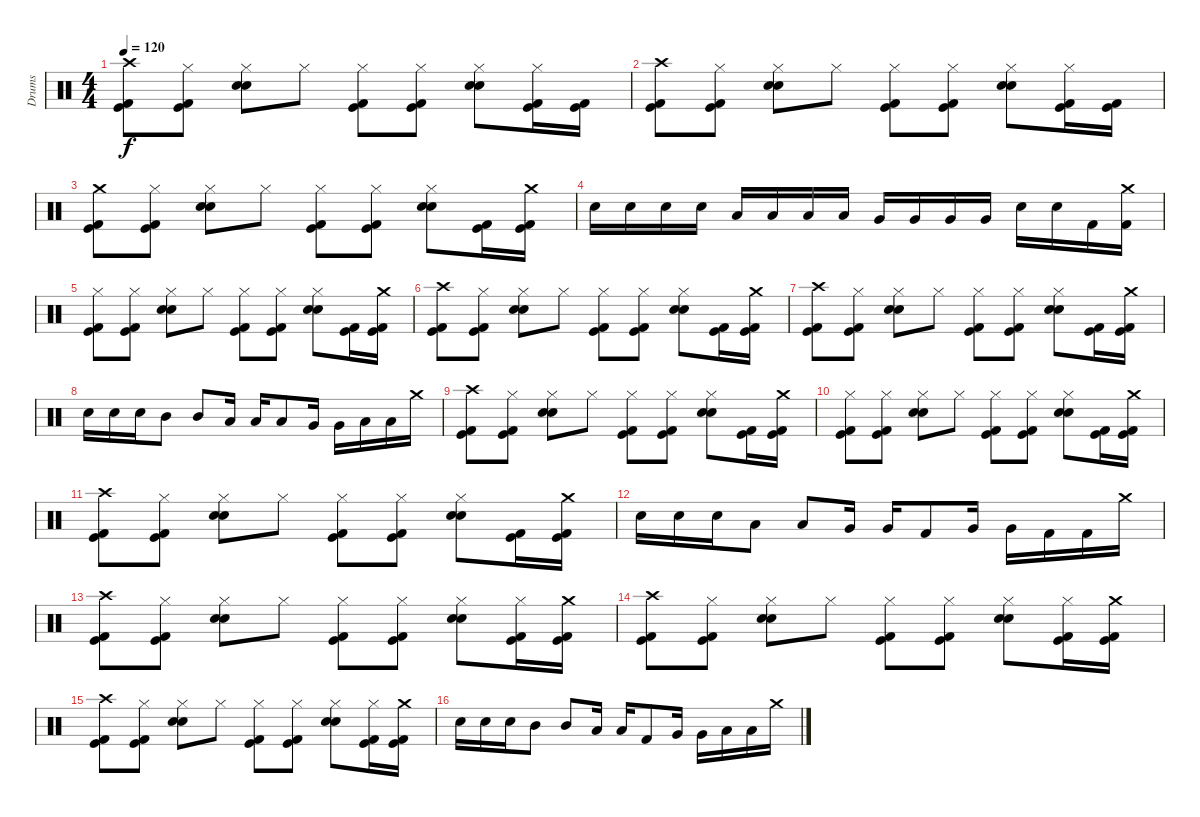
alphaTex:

\track ("Drums" "Drums") {instrument percussion}
\staff {score}
\articulation defaults
\ts (4 4)
\tempo 120
\clef neutral
\ks c
("Crash high (hit)" "Kick (hit) 2" "Kick (hit)").8{dy f} ("Hi-Hat (closed)" "Kick (hit) 2" "Kick (hit)").8 ("Snare (hit) 2" "Hi-Hat (closed)" "Electric Snare (hit)").8 "Hi-Hat (closed)".8 ("Hi-Hat (closed)" "Kick (hit) 2" "Kick (hit)").8 ("Hi-Hat (closed)" "Kick (hit) 2" "Kick (hit)").8 ("Snare (hit) 2" "Hi-Hat (closed)" "Electric Snare (hit)").8 ("Hi-Hat (closed)" "Kick (hit) 2" "Kick (hit)").16 ("Kick (hit) 2" "Kick (hit)").16 |
("Crash high (hit)" "Kick (hit) 2" "Kick (hit)").8 ("Hi-Hat (closed)" "Kick (hit) 2" "Kick (hit)").8 ("Snare (hit) 2" "Hi-Hat (closed)" "Electric Snare (hit)").8 "Hi-Hat (closed)".8 ("Hi-Hat (closed)" "Kick (hit) 2" "Kick (hit)").8 ("Hi-Hat (closed)" "Kick (hit) 2" "Kick (hit)").8 ("Snare (hit) 2" "Hi-Hat (closed)" "Electric Snare (hit)").8 ("Hi-Hat (closed)" "Kick (hit) 2" "Kick (hit)").16 ("Kick (hit) 2" "Kick (hit)").16 |
("Crash medium (hit)" "Kick (hit) 2" "Kick (hit)").8 ("Hi-Hat (closed)" "Kick (hit) 2" "Kick (hit)").8 ("Snare (hit) 2" "Hi-Hat (closed)" "Electric Snare (hit)").8 "Hi-Hat (closed)".8 ("Hi-Hat (closed)" "Kick (hit) 2" "Kick (hit)").8 ("Hi-Hat (closed)" "Kick (hit) 2" "Kick (hit)").8 ("Snare (hit) 2" "Hi-Hat (closed)" "Electric Snare (hit)").8 ("Kick (hit) 2" "Kick (hit)").16 ("Crash medium (hit)" "Kick (hit) 2" "Kick (hit)").16 |
"Electric Snare (hit)".16 "Electric Snare (hit)".16 "Electric Snare (hit)".16 "Electric Snare (hit)".16 "Low Tom (hit)".16 "Low Tom (hit)".16 "Low Tom (hit)".16 "Low Tom (hit)".16 "Very Low Tom (hit)".16 "Very Low Tom (hit)".16 "Very Low Tom (hit)".16 "Very Low Tom (hit)".16 "Electric Snare (hit)".16 "Electric Snare (hit)".16 "Kick (hit) 2".16 ("Crash medium (hit)" "Kick (hit) 2").16 |
("Hi-Hat (closed)" "Kick (hit) 2" "Kick (hit)").8 ("Hi-Hat (closed)" "Kick (hit) 2" "Kick (hit)").8 ("Snare (hit) 2" "Hi-Hat (closed)" "Electric Snare (hit)").8 "Hi-Hat (closed)".8 ("Hi-Hat (closed)" "Kick (hit) 2" "Kick (hit)").8 ("Hi-Hat (closed)" "Kick (hit) 2" "Kick (hit)").8 ("Snare (hit) 2" "Hi-Hat (closed)" "Electric Snare (hit)").8 ("Kick (hit) 2" "Kick (hit)").16 ("Crash medium (hit)" "Kick (hit) 2" "Kick (hit)").16 |
("Crash high (hit)" "Kick (hit) 2" "Kick (hit)").8 ("Hi-Hat (closed)" "Kick (hit) 2" "Kick (hit)").8 ("Snare (hit) 2" "Hi-Hat (closed)" "Electric Snare (hit)").8 "Hi-Hat (closed)".8 ("Hi-Hat (closed)" "Kick (hit) 2" "Kick (hit)").8 ("Hi-Hat (closed)" "Kick (hit) 2" "Kick (hit)").8 ("Snare (hit) 2" "Hi-Hat (closed)" "Electric Snare (hit)").8 ("Kick (hit) 2" "Kick (hit)").16 ("Crash medium (hit)" "Kick (hit) 2" "Kick (hit)").16 |
("Crash high (hit)" "Kick (hit) 2" "Kick (hit)").8 ("Hi-Hat (closed)" "Kick (hit) 2" "Kick (hit)").8 ("Snare (hit) 2" "Hi-Hat (closed)" "Electric Snare (hit)").8 "Hi-Hat (closed)".8 ("Hi-Hat (closed)" "Kick (hit) 2" "Kick (hit)").8 ("Hi-Hat (closed)" "Kick (hit) 2" "Kick (hit)").8 ("Snare (hit) 2" "Hi-Hat (closed)" "Electric Snare (hit)").8 ("Kick (hit) 2" "Kick (hit)").16 ("Crash medium (hit)" "Kick (hit) 2" "Kick (hit)").16 |
"Electric Snare (hit)".16 "Electric Snare (hit)".16 "Electric Snare (hit)".16 "Mid Tom (hit)".8 "Mid Tom (hit)".8 "Low Tom (hit)".16 "Low Tom (hit)".16 "Low Tom (hit)".8 "Very Low Tom (hit)".16 "Very Low Tom (hit)".16 "Low Floor Tom (hit)".16 "Low Floor Tom (hit)".16 "Crash medium (hit)".16 |
("Crash high (hit)" "Kick (hit) 2" "Kick (hit)").8 ("Hi-Hat (closed)" "Kick (hit) 2" "Kick (hit)").8 ("Snare (hit) 2" "Hi-Hat (closed)" "Electric Snare (hit)").8 "Hi-Hat (closed)".8 ("Hi-Hat (closed)" "Kick (hit) 2" "Kick (hit)").8 ("Hi-Hat (closed)" "Kick (hit) 2" "Kick (hit)").8 ("Snare (hit) 2" "Hi-Hat (closed)" "Electric Snare (hit)").8 ("Kick (hit) 2" "Kick (hit)").16 ("Crash medium (hit)" "Kick (hit) 2" "Kick (hit)").16 |
("Hi-Hat (closed)" "Kick (hit) 2" "Kick (hit)").8 ("Hi-Hat (closed)" "Kick (hit) 2" "Kick (hit)").8 ("Snare (hit) 2" "Hi-Hat (closed)" "Electric Snare (hit)").8 "Hi-Hat (closed)".8 ("Hi-Hat (closed)" "Kick (hit) 2" "Kick (hit)").8 ("Hi-Hat (closed)" "Kick (hit) 2" "Kick (hit)").8 ("Snare (hit) 2" "Hi-Hat (closed)" "Electric Snare (hit)").8 ("Kick (hit) 2" "Kick (hit)").16 ("Crash medium (hit)" "Kick (hit) 2" "Kick (hit)").16 |
("Crash high (hit)" "Kick (hit) 2" "Kick (hit)").8 ("Hi-Hat (closed)" "Kick (hit) 2" "Kick (hit)").8 ("Snare (hit) 2" "Hi-Hat (closed)" "Electric Snare (hit)").8 "Hi-Hat (closed)".8 ("Hi-Hat (closed)" "Kick (hit) 2" "Kick (hit)").8 ("Hi-Hat (closed)" "Kick (hit) 2" "Kick (hit)").8 ("Snare (hit) 2" "Hi-Hat (closed)" "Electric Snare (hit)").8 ("Kick (hit) 2" "Kick (hit)").16 ("Crash medium (hit)" "Kick (hit) 2" "Kick (hit)").16 |
"Snare (hit) 2".16 "Snare (hit) 2".16 "Snare (hit) 2".16 "Low Tom (hit)".8 "Low Tom (hit)".8 "Very Low Tom (hit)".16 "Very Low Tom (hit)".16 "Kick (hit) 2".8 "Very Low Tom (hit)".16 "Very Low Tom (hit)".16 "Kick (hit) 2".16 "Kick (hit) 2".16 "Crash medium (hit)".16 |
("Crash high (hit)" "Kick (hit) 2" "Kick (hit)").8 ("Hi-Hat (closed)" "Kick (hit) 2" "Kick (hit)").8 ("Snare (hit) 2" "Hi-Hat (closed)" "Electric Snare (hit)").8 "Hi-Hat (closed)".8 ("Hi-Hat (closed)" "Kick (hit) 2" "Kick (hit)").8 ("Hi-Hat (closed)" "Kick (hit) 2" "Kick (hit)").8 ("Snare (hit) 2" "Hi-Hat (closed)" "Electric Snare (hit)").8 ("Hi-Hat (closed)" "Kick (hit) 2" "Kick (hit)").16 ("Crash medium (hit)" "Kick (hit) 2" "Kick (hit)").16 |
("Crash high (hit)" "Kick (hit) 2" "Kick (hit)").8 ("Hi-Hat (closed)" "Kick (hit) 2" "Kick (hit)").8 ("Snare (hit) 2" "Hi-Hat (closed)" "Electric Snare (hit)").8 "Hi-Hat (closed)".8 ("Hi-Hat (closed)" "Kick (hit) 2" "Kick (hit)").8 ("Hi-Hat (closed)" "Kick (hit) 2" "Kick (hit)").8 ("Snare (hit) 2" "Hi-Hat (closed)" "Electric Snare (hit)").8 ("Hi-Hat (closed)" "Kick (hit) 2" "Kick (hit)").16 ("Crash medium (hit)" "Kick (hit) 2" "Kick (hit)").16 |
("Crash high (hit)" "Kick (hit) 2" "Kick (hit)").8 ("Hi-Hat (closed)" "Kick (hit) 2" "Kick (hit)").8 ("Snare (hit) 2" "Hi-Hat (closed)" "Electric Snare (hit)").8 "Hi-Hat (closed)".8 ("Hi-Hat (closed)" "Kick (hit) 2" "Kick (hit)").8 ("Hi-Hat (closed)" "Kick (hit) 2" "Kick (hit)").8 ("Snare (hit) 2" "Hi-Hat (closed)" "Electric Snare (hit)").8 ("Hi-Hat (closed)" "Kick (hit) 2" "Kick (hit)").16 ("Crash medium (hit)" "Kick (hit) 2" "Kick (hit)").16 |
"Electric Snare (hit)".16 "Electric Snare (hit)".16 "Electric Snare (hit)".16 "Mid Tom (hit)".8 "Mid Tom (hit)".8 "Low Tom (hit)".16 "Low Tom (hit)".16 "Kick (hit) 2".8 "Very Low Tom (hit)".16 "Very Low Tom (hit)".16 "Low Floor Tom (hit)".16 "Low Floor Tom (hit)".16 "Crash medium (hit)".16
